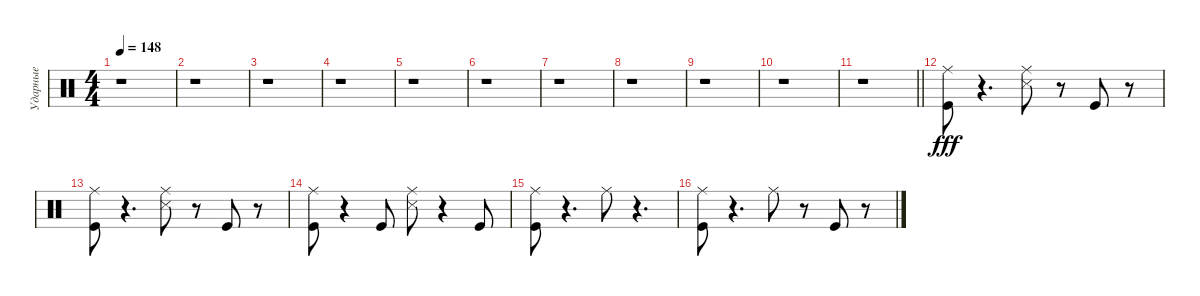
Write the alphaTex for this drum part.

\track ("Ударные" "Ударные") {instrument percussion}
\staff {score}
\articulation defaults
\ts (4 4)
\tempo 148
\clef neutral
\ks c
r.1{dy fff} |
r.1 |
r.1 |
r.1 |
r.1 |
r.1 |
r.1 |
r.1 |
r.1 |
r.1 |
\barLineRight lightlight
r.1 |
("Ride (middle)" "Kick (hit)").8 r.4{d} ("Snare (side stick) 3" "Ride (middle)").8 r.8 "Kick (hit)".8 r.8 |
("Ride (middle)" "Kick (hit)").8 r.4{d} ("Snare (side stick) 3" "Ride (middle)").8 r.8 "Kick (hit)".8 r.8 |
("Ride (middle)" "Kick (hit)").8 r.4 "Kick (hit)".8 ("Snare (side stick) 3" "Ride (middle)").8 r.4 "Kick (hit)".8 |
("Ride (middle)" "Kick (hit)").8 r.4{d} "Ride (middle)".8 r.4{d} |
("Ride (middle)" "Kick (hit)").8 r.4{d} "Ride (middle)".8 r.8 "Kick (hit)".8 r.8
